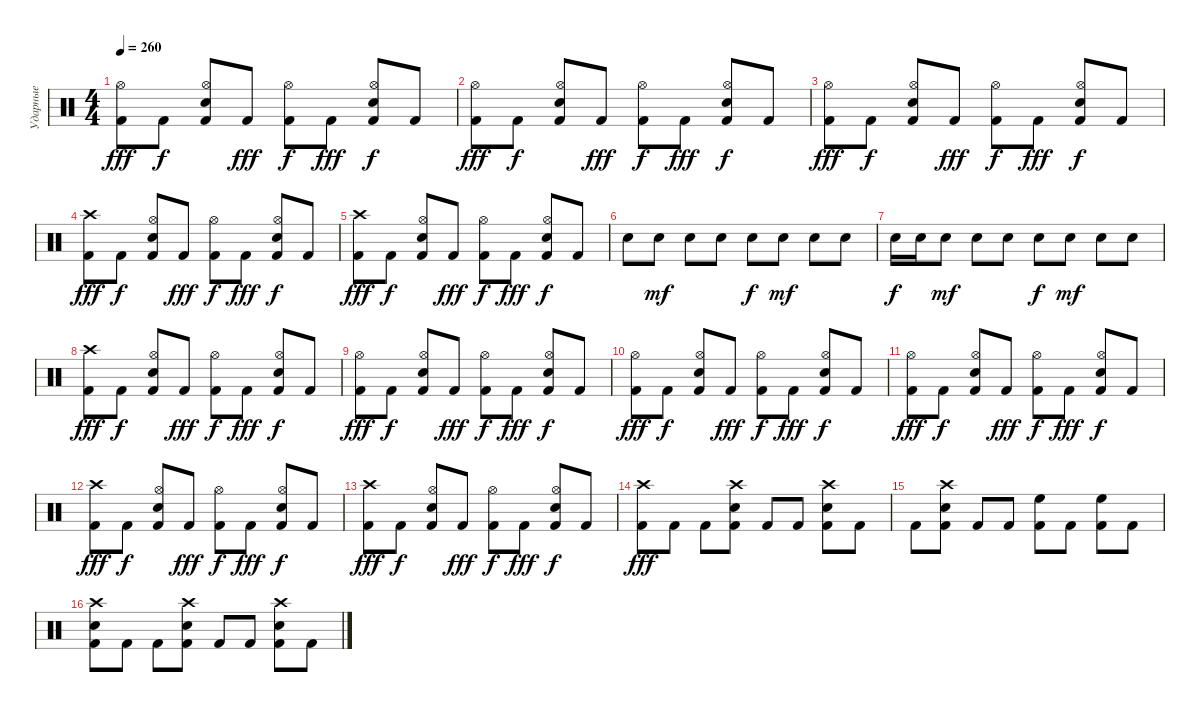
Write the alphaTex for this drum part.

\track ("Ударные" "Ударные") {instrument percussion}
\staff {score}
\articulation defaults
\ts (4 4)
\tempo 260
\clef neutral
\ks c
("Kick (hit) 2" "Hi-Hat (open)").8{dy fff} "Kick (hit) 2".8{dy f} ("Kick (hit) 2" "Snare (hit) 2" "Hi-Hat (open)").8 "Kick (hit) 2".8{dy fff} ("Kick (hit) 2" "Hi-Hat (open)").8{dy f} "Kick (hit) 2".8{dy fff} ("Kick (hit) 2" "Snare (hit) 2" "Hi-Hat (open)").8{dy f} "Kick (hit) 2".8 |
("Kick (hit) 2" "Hi-Hat (open)").8{dy fff} "Kick (hit) 2".8{dy f} ("Kick (hit) 2" "Snare (hit) 2" "Hi-Hat (open)").8 "Kick (hit) 2".8{dy fff} ("Kick (hit) 2" "Hi-Hat (open)").8{dy f} "Kick (hit) 2".8{dy fff} ("Kick (hit) 2" "Snare (hit) 2" "Hi-Hat (open)").8{dy f} "Kick (hit) 2".8 |
("Kick (hit) 2" "Hi-Hat (open)").8{dy fff} "Kick (hit) 2".8{dy f} ("Kick (hit) 2" "Snare (hit) 2" "Hi-Hat (open)").8 "Kick (hit) 2".8{dy fff} ("Kick (hit) 2" "Hi-Hat (open)").8{dy f} "Kick (hit) 2".8{dy fff} ("Kick (hit) 2" "Snare (hit) 2" "Hi-Hat (open)").8{dy f} "Kick (hit) 2".8 |
("Kick (hit) 2" "Crash high (hit)").8{dy fff} "Kick (hit) 2".8{dy f} ("Kick (hit) 2" "Snare (hit) 2" "Hi-Hat (open)").8 "Kick (hit) 2".8{dy fff} ("Kick (hit) 2" "Hi-Hat (open)").8{dy f} "Kick (hit) 2".8{dy fff} ("Kick (hit) 2" "Snare (hit) 2" "Hi-Hat (open)").8{dy f} "Kick (hit) 2".8 |
("Kick (hit) 2" "Crash high (hit)").8{dy fff} "Kick (hit) 2".8{dy f} ("Kick (hit) 2" "Snare (hit) 2" "Hi-Hat (open)").8 "Kick (hit) 2".8{dy fff} ("Kick (hit) 2" "Hi-Hat (open)").8{dy f} "Kick (hit) 2".8{dy fff} ("Kick (hit) 2" "Snare (hit) 2" "Hi-Hat (open)").8{dy f} "Kick (hit) 2".8 |
"Snare (hit) 2".8 "Snare (hit) 2".8{dy mf} "Snare (hit) 2".8 "Snare (hit) 2".8 "Snare (hit) 2".8{dy f} "Snare (hit) 2".8{dy mf} "Snare (hit) 2".8 "Snare (hit) 2".8 |
"Snare (hit) 2".16{dy f} "Snare (hit) 2".16 "Snare (hit) 2".8{dy mf} "Snare (hit) 2".8 "Snare (hit) 2".8 "Snare (hit) 2".8{dy f} "Snare (hit) 2".8{dy mf} "Snare (hit) 2".8 "Snare (hit) 2".8 |
("Kick (hit) 2" "Crash high (hit)").8{dy fff} "Kick (hit) 2".8{dy f} ("Kick (hit) 2" "Snare (hit) 2" "Hi-Hat (open)").8 "Kick (hit) 2".8{dy fff} ("Kick (hit) 2" "Hi-Hat (open)").8{dy f} "Kick (hit) 2".8{dy fff} ("Kick (hit) 2" "Snare (hit) 2" "Hi-Hat (open)").8{dy f} "Kick (hit) 2".8 |
("Kick (hit) 2" "Hi-Hat (open)").8{dy fff} "Kick (hit) 2".8{dy f} ("Kick (hit) 2" "Snare (hit) 2" "Hi-Hat (open)").8 "Kick (hit) 2".8{dy fff} ("Kick (hit) 2" "Hi-Hat (open)").8{dy f} "Kick (hit) 2".8{dy fff} ("Kick (hit) 2" "Snare (hit) 2" "Hi-Hat (open)").8{dy f} "Kick (hit) 2".8 |
("Kick (hit) 2" "Hi-Hat (open)").8{dy fff} "Kick (hit) 2".8{dy f} ("Kick (hit) 2" "Snare (hit) 2" "Hi-Hat (open)").8 "Kick (hit) 2".8{dy fff} ("Kick (hit) 2" "Hi-Hat (open)").8{dy f} "Kick (hit) 2".8{dy fff} ("Kick (hit) 2" "Snare (hit) 2" "Hi-Hat (open)").8{dy f} "Kick (hit) 2".8 |
("Kick (hit) 2" "Hi-Hat (open)").8{dy fff} "Kick (hit) 2".8{dy f} ("Kick (hit) 2" "Snare (hit) 2" "Hi-Hat (open)").8 "Kick (hit) 2".8{dy fff} ("Kick (hit) 2" "Hi-Hat (open)").8{dy f} "Kick (hit) 2".8{dy fff} ("Kick (hit) 2" "Snare (hit) 2" "Hi-Hat (open)").8{dy f} "Kick (hit) 2".8 |
("Kick (hit) 2" "Crash high (hit)").8{dy fff} "Kick (hit) 2".8{dy f} ("Kick (hit) 2" "Snare (hit) 2" "Hi-Hat (open)").8 "Kick (hit) 2".8{dy fff} ("Kick (hit) 2" "Hi-Hat (open)").8{dy f} "Kick (hit) 2".8{dy fff} ("Kick (hit) 2" "Snare (hit) 2" "Hi-Hat (open)").8{dy f} "Kick (hit) 2".8 |
("Kick (hit) 2" "Crash high (hit)").8{dy fff} "Kick (hit) 2".8{dy f} ("Kick (hit) 2" "Snare (hit) 2" "Hi-Hat (open)").8 "Kick (hit) 2".8{dy fff} ("Kick (hit) 2" "Hi-Hat (open)").8{dy f} "Kick (hit) 2".8{dy fff} ("Kick (hit) 2" "Snare (hit) 2" "Hi-Hat (open)").8{dy f} "Kick (hit) 2".8 |
("Kick (hit) 2" "Crash high (hit)").8{dy fff} "Kick (hit) 2".8 "Kick (hit) 2".8 ("Kick (hit) 2" "Snare (hit) 2" "Crash high (hit)").8 "Kick (hit) 2".8 "Kick (hit) 2".8 ("Kick (hit) 2" "Snare (hit) 2" "Crash high (hit)").8 "Kick (hit) 2".8 |
"Kick (hit) 2".8 ("Kick (hit) 2" "Snare (hit) 2" "Crash high (hit)").8 "Kick (hit) 2".8 "Kick (hit) 2".8 ("Kick (hit) 2" "High Floor Tom (hit)").8 "Kick (hit) 2".8 ("Kick (hit) 2" "High Floor Tom (hit)").8 "Kick (hit) 2".8 |
("Kick (hit) 2" "Snare (hit) 2" "Crash high (hit)").8 "Kick (hit) 2".8 "Kick (hit) 2".8 ("Kick (hit) 2" "Snare (hit) 2" "Crash high (hit)").8 "Kick (hit) 2".8 "Kick (hit) 2".8 ("Kick (hit) 2" "Snare (hit) 2" "Crash high (hit)").8 "Kick (hit) 2".8
